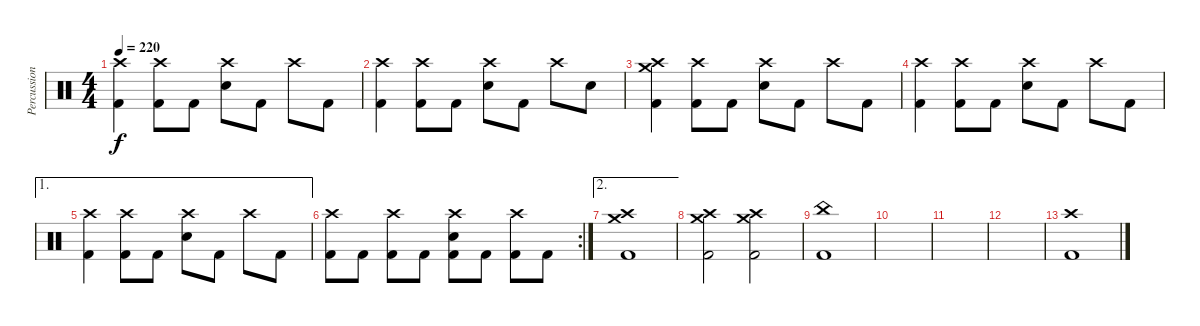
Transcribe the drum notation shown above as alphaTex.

\track ("Percussions" "Percussion") {instrument percussion}
\staff {score}
\articulation defaults
\ts (4 4)
\tempo 220
\clef neutral
\ks c
("Crash high (hit)" "Kick (hit) 2").4{dy f} ("Crash high (hit)" "Kick (hit) 2").8 "Kick (hit) 2".8 ("Crash high (hit)" "Snare (hit) 2").8 "Kick (hit) 2".8 "Crash high (hit)".8 "Kick (hit) 2".8 |
("Crash high (hit)" "Kick (hit) 2").4 ("Crash high (hit)" "Kick (hit) 2").8 "Kick (hit) 2".8 ("Crash high (hit)" "Snare (hit) 2").8 "Kick (hit) 2".8 "Crash high (hit)".8 "Snare (hit) 2".8 |
("Crash high (hit)" "Crash medium (hit)" "Kick (hit) 2").4 ("Crash high (hit)" "Kick (hit) 2").8 "Kick (hit) 2".8 ("Crash high (hit)" "Snare (hit) 2").8 "Kick (hit) 2".8 "Crash high (hit)".8 "Kick (hit) 2".8 |
("Crash high (hit)" "Kick (hit) 2").4 ("Crash high (hit)" "Kick (hit) 2").8 "Kick (hit) 2".8 ("Crash high (hit)" "Snare (hit) 2").8 "Kick (hit) 2".8 "Crash high (hit)".8 "Kick (hit) 2".8 |
\ae 1
("Crash high (hit)" "Kick (hit) 2").4 ("Crash high (hit)" "Kick (hit) 2").8 "Kick (hit) 2".8 ("Crash high (hit)" "Snare (hit) 2").8 "Kick (hit) 2".8 "Crash high (hit)".8 "Kick (hit) 2".8 |
\rc 2
("Crash high (hit)" "Kick (hit) 2").8 "Kick (hit) 2".8 ("Crash high (hit)" "Kick (hit) 2").8 "Kick (hit) 2".8 ("Crash high (hit)" "Snare (hit) 2" "Kick (hit) 2").8 "Kick (hit) 2".8 ("Crash high (hit)" "Kick (hit) 2").8 "Kick (hit) 2".8 |
\ae 2
("Crash high (hit)" "Crash medium (hit)" "Kick (hit) 2").1 |
("Crash medium (hit)" "Crash high (hit)" "Kick (hit) 2").2 ("Crash medium (hit)" "Crash high (hit)" "Kick (hit) 2").2 |
("China (hit)" "Kick (hit) 2").1 |
|
|
|
("Crash high (hit)" "Kick (hit) 2").1
